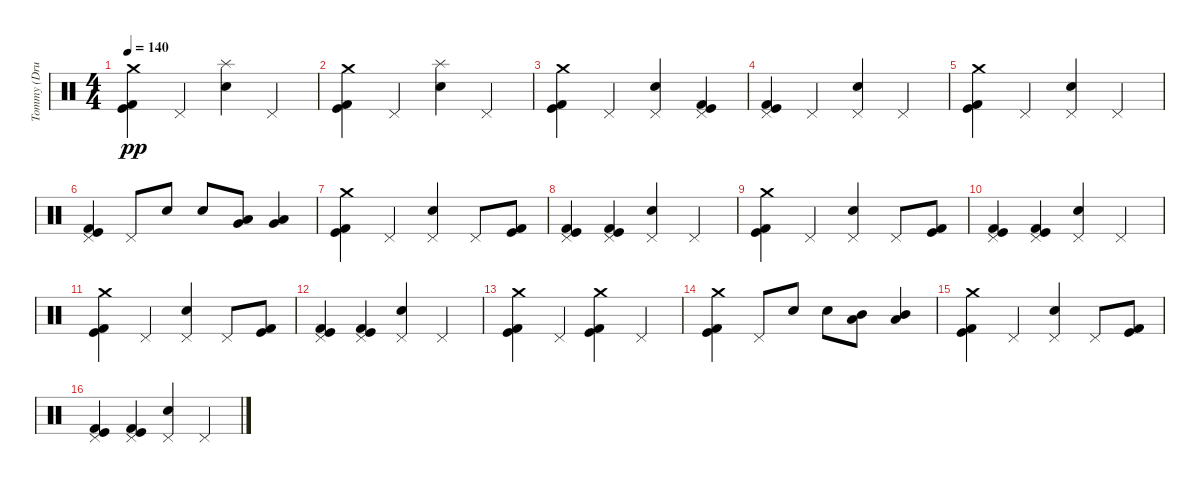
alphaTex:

\track ("Tommy (Drums)" "Tommy (Dru") {instrument percussion}
\staff {score}
\articulation defaults
\ts (4 4)
\tempo 140
\clef neutral
\ks c
("Kick (hit) 2" "Kick (hit)" "Crash medium (hit)").4{dy pp} "Pedal Hi-Hat (hit)".4 ("Splash (hit)" "Snare (hit) 2").4 "Pedal Hi-Hat (hit)".4 |
("Crash medium (hit)" "Kick (hit) 2" "Kick (hit)").4 "Pedal Hi-Hat (hit)".4 ("Splash (hit)" "Snare (hit) 2").4 "Pedal Hi-Hat (hit)".4 |
("Kick (hit) 2" "Kick (hit)" "Crash medium (hit)").4 "Pedal Hi-Hat (hit)".4 ("Pedal Hi-Hat (hit)" "Snare (hit) 2").4 ("Kick (hit)" "Kick (hit) 2" "Pedal Hi-Hat (hit)").4 |
("Pedal Hi-Hat (hit)" "Kick (hit) 2" "Kick (hit)").4 "Pedal Hi-Hat (hit)".4 ("Pedal Hi-Hat (hit)" "Snare (hit) 2").4 "Pedal Hi-Hat (hit)".4 |
("Kick (hit) 2" "Kick (hit)" "Crash medium (hit)").4 "Pedal Hi-Hat (hit)".4 ("Pedal Hi-Hat (hit)" "Snare (hit) 2").4 "Pedal Hi-Hat (hit)".4 |
("Pedal Hi-Hat (hit)" "Kick (hit) 2" "Kick (hit)").4 "Pedal Hi-Hat (hit)".8 "Snare (hit) 2".8 "Snare (hit) 2".8 ("Very Low Tom (hit)" "Low Tom (hit)").8 ("Very Low Tom (hit)" "Low Tom (hit)").4 |
("Kick (hit)" "Crash medium (hit)" "Kick (hit) 2").4 "Pedal Hi-Hat (hit)".4 ("Pedal Hi-Hat (hit)" "Snare (hit) 2").4 "Pedal Hi-Hat (hit)".8 ("Kick (hit)" "Kick (hit) 2").8 |
("Pedal Hi-Hat (hit)" "Kick (hit)" "Kick (hit) 2").4 ("Pedal Hi-Hat (hit)" "Kick (hit)" "Kick (hit) 2").4 ("Snare (hit) 2" "Pedal Hi-Hat (hit)").4 "Pedal Hi-Hat (hit)".4 |
("Kick (hit)" "Crash medium (hit)" "Kick (hit) 2").4 "Pedal Hi-Hat (hit)".4 ("Pedal Hi-Hat (hit)" "Snare (hit) 2").4 "Pedal Hi-Hat (hit)".8 ("Kick (hit)" "Kick (hit) 2").8 |
("Pedal Hi-Hat (hit)" "Kick (hit)" "Kick (hit) 2").4 ("Pedal Hi-Hat (hit)" "Kick (hit)" "Kick (hit) 2").4 ("Snare (hit) 2" "Pedal Hi-Hat (hit)").4 "Pedal Hi-Hat (hit)".4 |
("Kick (hit)" "Crash medium (hit)" "Kick (hit) 2").4 "Pedal Hi-Hat (hit)".4 ("Pedal Hi-Hat (hit)" "Snare (hit) 2").4 "Pedal Hi-Hat (hit)".8 ("Kick (hit)" "Kick (hit) 2").8 |
("Pedal Hi-Hat (hit)" "Kick (hit)" "Kick (hit) 2").4 ("Pedal Hi-Hat (hit)" "Kick (hit)" "Kick (hit) 2").4 ("Snare (hit) 2" "Pedal Hi-Hat (hit)").4 "Pedal Hi-Hat (hit)".4 |
("Crash medium (hit)" "Kick (hit)" "Kick (hit) 2").4 "Pedal Hi-Hat (hit)".4 ("Crash medium (hit)" "Kick (hit) 2" "Kick (hit)").4 "Pedal Hi-Hat (hit)".4 |
("Crash medium (hit)" "Kick (hit)" "Kick (hit) 2").4 "Pedal Hi-Hat (hit)".8 "Snare (hit) 2".8 "Snare (hit) 2".8 ("Mid Tom (hit)" "Low Tom (hit)").8 ("Low Tom (hit)" "Mid Tom (hit)").4 |
("Kick (hit)" "Crash medium (hit)" "Kick (hit) 2").4 "Pedal Hi-Hat (hit)".4 ("Pedal Hi-Hat (hit)" "Snare (hit) 2").4 "Pedal Hi-Hat (hit)".8 ("Kick (hit)" "Kick (hit) 2").8 |
("Pedal Hi-Hat (hit)" "Kick (hit)" "Kick (hit) 2").4 ("Pedal Hi-Hat (hit)" "Kick (hit)" "Kick (hit) 2").4 ("Snare (hit) 2" "Pedal Hi-Hat (hit)").4 "Pedal Hi-Hat (hit)".4
